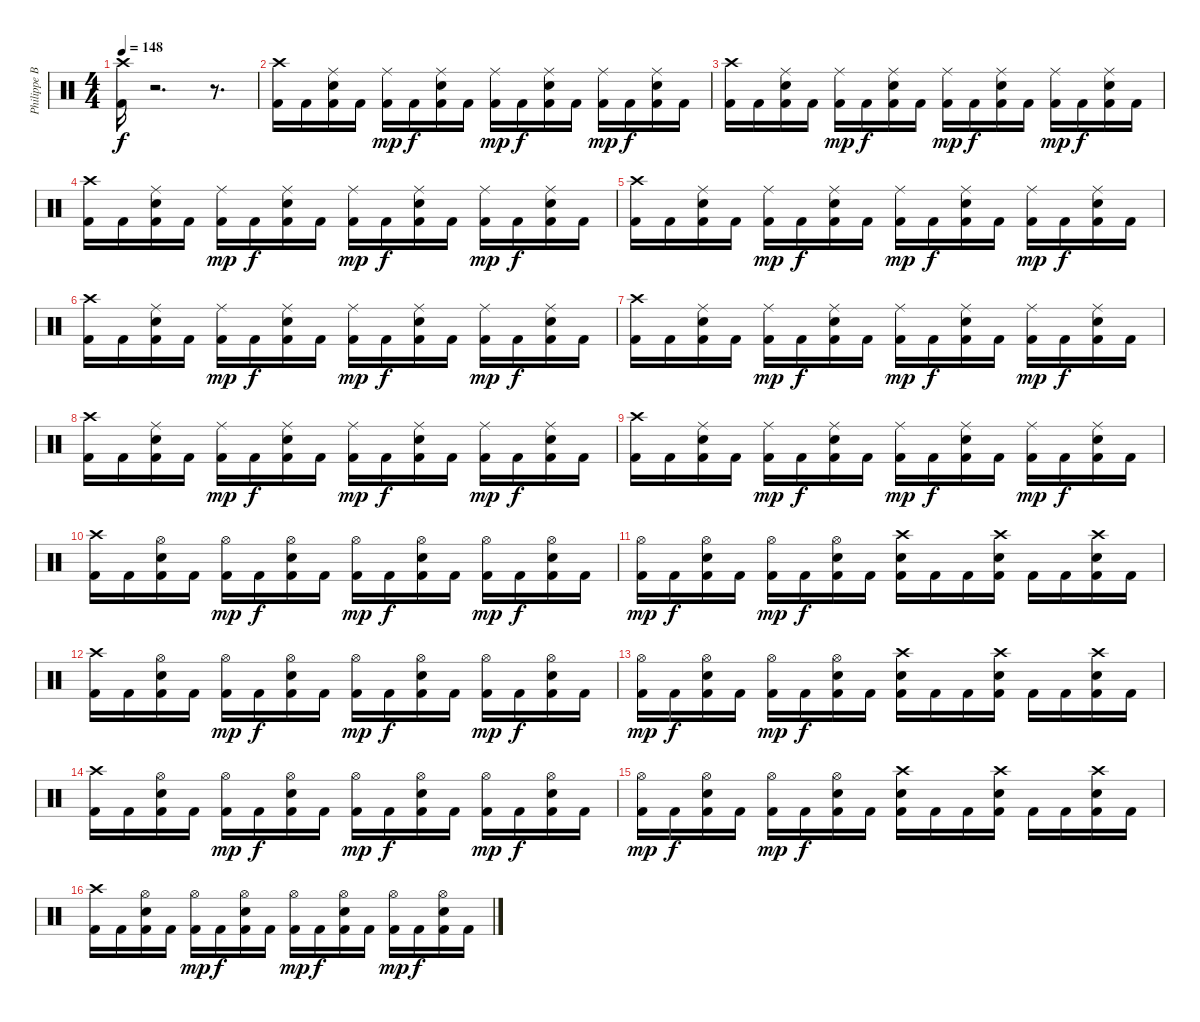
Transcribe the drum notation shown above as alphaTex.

\track ("Philippe Borda" "Philippe B") {instrument percussion}
\staff {score}
\articulation defaults
\ts (4 4)
\tempo 148
\clef neutral
\ks c
("Crash high (hit)" "Kick (hit) 2").16{dy f} r.2{d} r.8{d} |
("Crash high (hit)" "Kick (hit) 2").16 "Kick (hit) 2".16 ("Kick (hit) 2" "Snare (hit) 2" "Ride (middle)").16 "Kick (hit) 2".16 ("Kick (hit) 2" "Ride (middle)").16{dy mp} "Kick (hit) 2".16{dy f} ("Kick (hit) 2" "Snare (hit) 2" "Ride (middle)").16 "Kick (hit) 2".16 ("Kick (hit) 2" "Ride (middle)").16{dy mp} "Kick (hit) 2".16{dy f} ("Kick (hit) 2" "Snare (hit) 2" "Ride (middle)").16 "Kick (hit) 2".16 ("Kick (hit) 2" "Ride (middle)").16{dy mp} "Kick (hit) 2".16{dy f} ("Kick (hit) 2" "Snare (hit) 2" "Ride (middle)").16 "Kick (hit) 2".16 |
("Crash high (hit)" "Kick (hit) 2").16 "Kick (hit) 2".16 ("Kick (hit) 2" "Ride (middle)" "Snare (hit) 2").16 "Kick (hit) 2".16 ("Kick (hit) 2" "Ride (middle)").16{dy mp} "Kick (hit) 2".16{dy f} ("Kick (hit) 2" "Ride (middle)" "Snare (hit) 2").16 "Kick (hit) 2".16 ("Kick (hit) 2" "Ride (middle)").16{dy mp} "Kick (hit) 2".16{dy f} ("Kick (hit) 2" "Ride (middle)" "Snare (hit) 2").16 "Kick (hit) 2".16 ("Kick (hit) 2" "Ride (middle)").16{dy mp} "Kick (hit) 2".16{dy f} ("Kick (hit) 2" "Ride (middle)" "Snare (hit) 2").16 "Kick (hit) 2".16 |
("Crash high (hit)" "Kick (hit) 2").16 "Kick (hit) 2".16 ("Kick (hit) 2" "Ride (middle)" "Snare (hit) 2").16 "Kick (hit) 2".16 ("Kick (hit) 2" "Ride (middle)").16{dy mp} "Kick (hit) 2".16{dy f} ("Kick (hit) 2" "Ride (middle)" "Snare (hit) 2").16 "Kick (hit) 2".16 ("Kick (hit) 2" "Ride (middle)").16{dy mp} "Kick (hit) 2".16{dy f} ("Kick (hit) 2" "Ride (middle)" "Snare (hit) 2").16 "Kick (hit) 2".16 ("Kick (hit) 2" "Ride (middle)").16{dy mp} "Kick (hit) 2".16{dy f} ("Kick (hit) 2" "Ride (middle)" "Snare (hit) 2").16 "Kick (hit) 2".16 |
("Crash high (hit)" "Kick (hit) 2").16 "Kick (hit) 2".16 ("Kick (hit) 2" "Ride (middle)" "Snare (hit) 2").16 "Kick (hit) 2".16 ("Kick (hit) 2" "Ride (middle)").16{dy mp} "Kick (hit) 2".16{dy f} ("Kick (hit) 2" "Ride (middle)" "Snare (hit) 2").16 "Kick (hit) 2".16 ("Kick (hit) 2" "Ride (middle)").16{dy mp} "Kick (hit) 2".16{dy f} ("Kick (hit) 2" "Ride (middle)" "Snare (hit) 2").16 "Kick (hit) 2".16 ("Kick (hit) 2" "Ride (middle)").16{dy mp} "Kick (hit) 2".16{dy f} ("Kick (hit) 2" "Ride (middle)" "Snare (hit) 2").16 "Kick (hit) 2".16 |
("Crash high (hit)" "Kick (hit) 2").16 "Kick (hit) 2".16 ("Kick (hit) 2" "Ride (middle)" "Snare (hit) 2").16 "Kick (hit) 2".16 ("Kick (hit) 2" "Ride (middle)").16{dy mp} "Kick (hit) 2".16{dy f} ("Kick (hit) 2" "Ride (middle)" "Snare (hit) 2").16 "Kick (hit) 2".16 ("Kick (hit) 2" "Ride (middle)").16{dy mp} "Kick (hit) 2".16{dy f} ("Kick (hit) 2" "Ride (middle)" "Snare (hit) 2").16 "Kick (hit) 2".16 ("Kick (hit) 2" "Ride (middle)").16{dy mp} "Kick (hit) 2".16{dy f} ("Kick (hit) 2" "Ride (middle)" "Snare (hit) 2").16 "Kick (hit) 2".16 |
("Crash high (hit)" "Kick (hit) 2").16 "Kick (hit) 2".16 ("Kick (hit) 2" "Ride (middle)" "Snare (hit) 2").16 "Kick (hit) 2".16 ("Kick (hit) 2" "Ride (middle)").16{dy mp} "Kick (hit) 2".16{dy f} ("Kick (hit) 2" "Ride (middle)" "Snare (hit) 2").16 "Kick (hit) 2".16 ("Kick (hit) 2" "Ride (middle)").16{dy mp} "Kick (hit) 2".16{dy f} ("Kick (hit) 2" "Ride (middle)" "Snare (hit) 2").16 "Kick (hit) 2".16 ("Kick (hit) 2" "Ride (middle)").16{dy mp} "Kick (hit) 2".16{dy f} ("Kick (hit) 2" "Ride (middle)" "Snare (hit) 2").16 "Kick (hit) 2".16 |
("Crash high (hit)" "Kick (hit) 2").16 "Kick (hit) 2".16 ("Kick (hit) 2" "Ride (middle)" "Snare (hit) 2").16 "Kick (hit) 2".16 ("Kick (hit) 2" "Ride (middle)").16{dy mp} "Kick (hit) 2".16{dy f} ("Kick (hit) 2" "Ride (middle)" "Snare (hit) 2").16 "Kick (hit) 2".16 ("Kick (hit) 2" "Ride (middle)").16{dy mp} "Kick (hit) 2".16{dy f} ("Kick (hit) 2" "Ride (middle)" "Snare (hit) 2").16 "Kick (hit) 2".16 ("Kick (hit) 2" "Ride (middle)").16{dy mp} "Kick (hit) 2".16{dy f} ("Kick (hit) 2" "Ride (middle)" "Snare (hit) 2").16 "Kick (hit) 2".16 |
("Crash high (hit)" "Kick (hit) 2").16 "Kick (hit) 2".16 ("Kick (hit) 2" "Ride (middle)" "Snare (hit) 2").16 "Kick (hit) 2".16 ("Kick (hit) 2" "Ride (middle)").16{dy mp} "Kick (hit) 2".16{dy f} ("Kick (hit) 2" "Ride (middle)" "Snare (hit) 2").16 "Kick (hit) 2".16 ("Kick (hit) 2" "Ride (middle)").16{dy mp} "Kick (hit) 2".16{dy f} ("Kick (hit) 2" "Ride (middle)" "Snare (hit) 2").16 "Kick (hit) 2".16 ("Kick (hit) 2" "Ride (middle)").16{dy mp} "Kick (hit) 2".16{dy f} ("Kick (hit) 2" "Ride (middle)" "Snare (hit) 2").16 "Kick (hit) 2".16 |
("Crash high (hit)" "Kick (hit) 2").16 "Kick (hit) 2".16 ("Kick (hit) 2" "Snare (hit) 2" "Hi-Hat (open)").16 "Kick (hit) 2".16 ("Kick (hit) 2" "Hi-Hat (open)").16{dy mp} "Kick (hit) 2".16{dy f} ("Kick (hit) 2" "Snare (hit) 2" "Hi-Hat (open)").16 "Kick (hit) 2".16 ("Kick (hit) 2" "Hi-Hat (open)").16{dy mp} "Kick (hit) 2".16{dy f} ("Kick (hit) 2" "Snare (hit) 2" "Hi-Hat (open)").16 "Kick (hit) 2".16 ("Kick (hit) 2" "Hi-Hat (open)").16{dy mp} "Kick (hit) 2".16{dy f} ("Kick (hit) 2" "Snare (hit) 2" "Hi-Hat (open)").16 "Kick (hit) 2".16 |
("Kick (hit) 2" "Hi-Hat (open)").16{dy mp} "Kick (hit) 2".16{dy f} ("Kick (hit) 2" "Snare (hit) 2" "Hi-Hat (open)").16 "Kick (hit) 2".16 ("Kick (hit) 2" "Hi-Hat (open)").16{dy mp} "Kick (hit) 2".16{dy f} ("Kick (hit) 2" "Hi-Hat (open)" "Snare (hit) 2").16 "Kick (hit) 2".16 ("Crash high (hit)" "Kick (hit) 2" "Snare (hit) 2").16 "Kick (hit) 2".16 "Kick (hit) 2".16 ("Crash high (hit)" "Kick (hit) 2" "Snare (hit) 2").16 "Kick (hit) 2".16 "Kick (hit) 2".16 ("Crash high (hit)" "Kick (hit) 2" "Snare (hit) 2").16 "Kick (hit) 2".16 |
("Crash high (hit)" "Kick (hit) 2").16 "Kick (hit) 2".16 ("Kick (hit) 2" "Snare (hit) 2" "Hi-Hat (open)").16 "Kick (hit) 2".16 ("Kick (hit) 2" "Hi-Hat (open)").16{dy mp} "Kick (hit) 2".16{dy f} ("Kick (hit) 2" "Snare (hit) 2" "Hi-Hat (open)").16 "Kick (hit) 2".16 ("Kick (hit) 2" "Hi-Hat (open)").16{dy mp} "Kick (hit) 2".16{dy f} ("Kick (hit) 2" "Snare (hit) 2" "Hi-Hat (open)").16 "Kick (hit) 2".16 ("Kick (hit) 2" "Hi-Hat (open)").16{dy mp} "Kick (hit) 2".16{dy f} ("Kick (hit) 2" "Snare (hit) 2" "Hi-Hat (open)").16 "Kick (hit) 2".16 |
("Kick (hit) 2" "Hi-Hat (open)").16{dy mp} "Kick (hit) 2".16{dy f} ("Kick (hit) 2" "Snare (hit) 2" "Hi-Hat (open)").16 "Kick (hit) 2".16 ("Kick (hit) 2" "Hi-Hat (open)").16{dy mp} "Kick (hit) 2".16{dy f} ("Kick (hit) 2" "Hi-Hat (open)" "Snare (hit) 2").16 "Kick (hit) 2".16 ("Crash high (hit)" "Kick (hit) 2" "Snare (hit) 2").16 "Kick (hit) 2".16 "Kick (hit) 2".16 ("Crash high (hit)" "Kick (hit) 2" "Snare (hit) 2").16 "Kick (hit) 2".16 "Kick (hit) 2".16 ("Crash high (hit)" "Kick (hit) 2" "Snare (hit) 2").16 "Kick (hit) 2".16 |
("Crash high (hit)" "Kick (hit) 2").16 "Kick (hit) 2".16 ("Kick (hit) 2" "Snare (hit) 2" "Hi-Hat (open)").16 "Kick (hit) 2".16 ("Kick (hit) 2" "Hi-Hat (open)").16{dy mp} "Kick (hit) 2".16{dy f} ("Kick (hit) 2" "Snare (hit) 2" "Hi-Hat (open)").16 "Kick (hit) 2".16 ("Kick (hit) 2" "Hi-Hat (open)").16{dy mp} "Kick (hit) 2".16{dy f} ("Kick (hit) 2" "Snare (hit) 2" "Hi-Hat (open)").16 "Kick (hit) 2".16 ("Kick (hit) 2" "Hi-Hat (open)").16{dy mp} "Kick (hit) 2".16{dy f} ("Kick (hit) 2" "Snare (hit) 2" "Hi-Hat (open)").16 "Kick (hit) 2".16 |
("Kick (hit) 2" "Hi-Hat (open)").16{dy mp} "Kick (hit) 2".16{dy f} ("Kick (hit) 2" "Snare (hit) 2" "Hi-Hat (open)").16 "Kick (hit) 2".16 ("Kick (hit) 2" "Hi-Hat (open)").16{dy mp} "Kick (hit) 2".16{dy f} ("Kick (hit) 2" "Hi-Hat (open)" "Snare (hit) 2").16 "Kick (hit) 2".16 ("Crash high (hit)" "Kick (hit) 2" "Snare (hit) 2").16 "Kick (hit) 2".16 "Kick (hit) 2".16 ("Crash high (hit)" "Kick (hit) 2" "Snare (hit) 2").16 "Kick (hit) 2".16 "Kick (hit) 2".16 ("Crash high (hit)" "Kick (hit) 2" "Snare (hit) 2").16 "Kick (hit) 2".16 |
("Crash high (hit)" "Kick (hit) 2").16 "Kick (hit) 2".16 ("Kick (hit) 2" "Snare (hit) 2" "Hi-Hat (open)").16 "Kick (hit) 2".16 ("Kick (hit) 2" "Hi-Hat (open)").16{dy mp} "Kick (hit) 2".16{dy f} ("Kick (hit) 2" "Snare (hit) 2" "Hi-Hat (open)").16 "Kick (hit) 2".16 ("Kick (hit) 2" "Hi-Hat (open)").16{dy mp} "Kick (hit) 2".16{dy f} ("Kick (hit) 2" "Snare (hit) 2" "Hi-Hat (open)").16 "Kick (hit) 2".16 ("Kick (hit) 2" "Hi-Hat (open)").16{dy mp} "Kick (hit) 2".16{dy f} ("Kick (hit) 2" "Snare (hit) 2" "Hi-Hat (open)").16 "Kick (hit) 2".16
